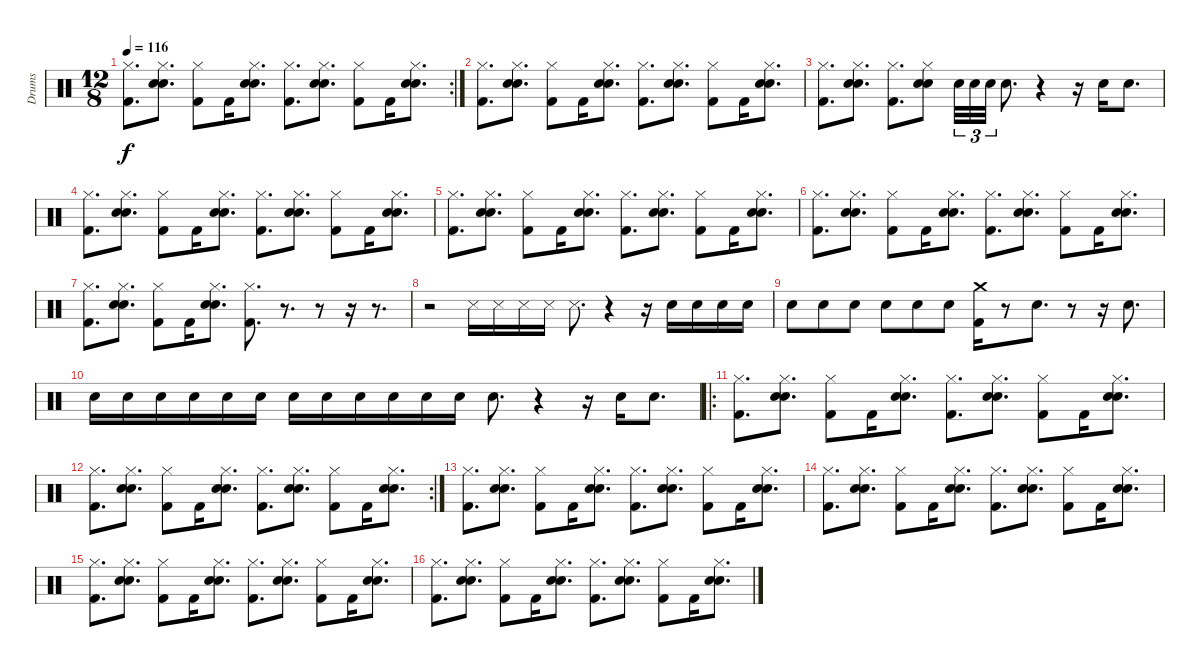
\track ("Drums" "Drums") {instrument percussion}
\staff {score}
\articulation defaults
\rc 2
\ts (12 8)
\tempo 116
\clef neutral
\ks c
("Hi-Hat (closed)" "Kick (hit) 2").8{d dy f} ("Hi-Hat (closed)" "Snare (hit) 2" "Hand Clap (hit)").8{d} ("Hi-Hat (closed)" "Kick (hit) 2").8 "Kick (hit) 2".16 ("Hi-Hat (closed)" "Snare (hit) 2" "Hand Clap (hit)").8{d} ("Hi-Hat (closed)" "Kick (hit) 2").8{d} ("Hi-Hat (closed)" "Snare (hit) 2" "Hand Clap (hit)").8{d} ("Hi-Hat (closed)" "Kick (hit) 2").8 "Kick (hit) 2".16 ("Hi-Hat (closed)" "Snare (hit) 2" "Hand Clap (hit)").8{d} |
("Hi-Hat (closed)" "Kick (hit) 2").8{d} ("Hi-Hat (closed)" "Snare (hit) 2" "Hand Clap (hit)").8{d} ("Hi-Hat (closed)" "Kick (hit) 2").8 "Kick (hit) 2".16 ("Hi-Hat (closed)" "Snare (hit) 2" "Hand Clap (hit)").8{d} ("Hi-Hat (closed)" "Kick (hit) 2").8{d} ("Hi-Hat (closed)" "Snare (hit) 2" "Hand Clap (hit)").8{d} ("Hi-Hat (closed)" "Kick (hit) 2").8 "Kick (hit) 2".16 ("Hi-Hat (closed)" "Snare (hit) 2" "Hand Clap (hit)").8{d} |
("Hi-Hat (closed)" "Kick (hit) 2").8{d} ("Hand Clap (hit)" "Hi-Hat (closed)" "Snare (hit) 2").8{d} ("Hi-Hat (closed)" "Kick (hit) 2").8{d} ("Hand Clap (hit)" "Hi-Hat (closed)" "Snare (hit) 2").8 "Snare (hit) 2".32{tu (3 2)} "Snare (hit) 2".32{tu (3 2)} "Snare (hit) 2".32{tu (3 2)} "Snare (hit) 2".8{d} r.4 r.16 "Snare (hit) 2".16 "Snare (hit) 2".8{d} |
("Hi-Hat (closed)" "Kick (hit) 2").8{d} ("Hi-Hat (closed)" "Snare (hit) 2" "Hand Clap (hit)").8{d} ("Hi-Hat (closed)" "Kick (hit) 2").8 "Kick (hit) 2".16 ("Hi-Hat (closed)" "Snare (hit) 2" "Hand Clap (hit)").8{d} ("Hi-Hat (closed)" "Kick (hit) 2").8{d} ("Hi-Hat (closed)" "Snare (hit) 2" "Hand Clap (hit)").8{d} ("Hi-Hat (closed)" "Kick (hit) 2").8 "Kick (hit) 2".16 ("Hi-Hat (closed)" "Snare (hit) 2" "Hand Clap (hit)").8{d} |
("Hi-Hat (closed)" "Kick (hit) 2").8{d} ("Hi-Hat (closed)" "Snare (hit) 2" "Hand Clap (hit)").8{d} ("Hi-Hat (closed)" "Kick (hit) 2").8 "Kick (hit) 2".16 ("Hi-Hat (closed)" "Snare (hit) 2" "Hand Clap (hit)").8{d} ("Hi-Hat (closed)" "Kick (hit) 2").8{d} ("Hi-Hat (closed)" "Snare (hit) 2" "Hand Clap (hit)").8{d} ("Hi-Hat (closed)" "Kick (hit) 2").8 "Kick (hit) 2".16 ("Hi-Hat (closed)" "Snare (hit) 2" "Hand Clap (hit)").8{d} |
("Hi-Hat (closed)" "Kick (hit) 2").8{d} ("Hi-Hat (closed)" "Snare (hit) 2" "Hand Clap (hit)").8{d} ("Hi-Hat (closed)" "Kick (hit) 2").8 "Kick (hit) 2".16 ("Hi-Hat (closed)" "Snare (hit) 2" "Hand Clap (hit)").8{d} ("Hi-Hat (closed)" "Kick (hit) 2").8{d} ("Hi-Hat (closed)" "Snare (hit) 2" "Hand Clap (hit)").8{d} ("Hi-Hat (closed)" "Kick (hit) 2").8 "Kick (hit) 2".16 ("Hi-Hat (closed)" "Snare (hit) 2" "Hand Clap (hit)").8{d} |
("Hi-Hat (closed)" "Kick (hit) 2").8{d} ("Hi-Hat (closed)" "Snare (hit) 2" "Hand Clap (hit)").8{d} ("Hi-Hat (closed)" "Kick (hit) 2").8 "Kick (hit) 2".16 ("Hi-Hat (closed)" "Snare (hit) 2" "Hand Clap (hit)").8{d} ("Hi-Hat (closed)" "Kick (hit) 2").8{d} r.8{d} r.8 r.16 r.8{d} |
r.2 "Snare (side stick) 3".16 "Snare (side stick) 3".16 "Snare (side stick) 3".16 "Snare (side stick) 3".16 "Snare (side stick) 3".8{d} r.4 r.16 "Snare (hit) 2".16 "Snare (hit) 2".16 "Snare (hit) 2".16 "Snare (hit) 2".16 |
"Snare (hit) 2".8 "Snare (hit) 2".8 "Snare (hit) 2".8 "Snare (hit) 2".8 "Snare (hit) 2".8 "Snare (hit) 2".8 ("Kick (hit) 2" "Crash medium (hit)").16 r.8 "Hand Clap (hit)".8{d} r.8 r.16 "Hand Clap (hit)".8{d} |
"Snare (hit) 2".16 "Snare (hit) 2".16 "Snare (hit) 2".16 "Snare (hit) 2".16 "Snare (hit) 2".16 "Snare (hit) 2".16 "Snare (hit) 2".16 "Snare (hit) 2".16 "Snare (hit) 2".16 "Snare (hit) 2".16 "Snare (hit) 2".16 "Snare (hit) 2".16 "Snare (hit) 2".8{d} r.4 r.16 "Snare (hit) 2".16 "Snare (hit) 2".8{d} |
\ro
("Hi-Hat (closed)" "Kick (hit) 2").8{d} ("Hi-Hat (closed)" "Snare (hit) 2" "Hand Clap (hit)").8{d} ("Hi-Hat (closed)" "Kick (hit) 2").8 "Kick (hit) 2".16 ("Hi-Hat (closed)" "Snare (hit) 2" "Hand Clap (hit)").8{d} ("Hi-Hat (closed)" "Kick (hit) 2").8{d} ("Hi-Hat (closed)" "Snare (hit) 2" "Hand Clap (hit)").8{d} ("Hi-Hat (closed)" "Kick (hit) 2").8 "Kick (hit) 2".16 ("Hi-Hat (closed)" "Snare (hit) 2" "Hand Clap (hit)").8{d} |
\rc 2
("Hi-Hat (closed)" "Kick (hit) 2").8{d} ("Hi-Hat (closed)" "Snare (hit) 2" "Hand Clap (hit)").8{d} ("Hi-Hat (closed)" "Kick (hit) 2").8 "Kick (hit) 2".16 ("Hi-Hat (closed)" "Snare (hit) 2" "Hand Clap (hit)").8{d} ("Hi-Hat (closed)" "Kick (hit) 2").8{d} ("Hi-Hat (closed)" "Snare (hit) 2" "Hand Clap (hit)").8{d} ("Hi-Hat (closed)" "Kick (hit) 2").8 "Kick (hit) 2".16 ("Hi-Hat (closed)" "Snare (hit) 2" "Hand Clap (hit)").8{d} |
("Hi-Hat (closed)" "Kick (hit) 2").8{d} ("Hi-Hat (closed)" "Snare (hit) 2" "Hand Clap (hit)").8{d} ("Hi-Hat (closed)" "Kick (hit) 2").8 "Kick (hit) 2".16 ("Hi-Hat (closed)" "Snare (hit) 2" "Hand Clap (hit)").8{d} ("Hi-Hat (closed)" "Kick (hit) 2").8{d} ("Hi-Hat (closed)" "Snare (hit) 2" "Hand Clap (hit)").8{d} ("Hi-Hat (closed)" "Kick (hit) 2").8 "Kick (hit) 2".16 ("Hi-Hat (closed)" "Snare (hit) 2" "Hand Clap (hit)").8{d} |
("Hi-Hat (closed)" "Kick (hit) 2").8{d} ("Hi-Hat (closed)" "Snare (hit) 2" "Hand Clap (hit)").8{d} ("Hi-Hat (closed)" "Kick (hit) 2").8 "Kick (hit) 2".16 ("Hi-Hat (closed)" "Snare (hit) 2" "Hand Clap (hit)").8{d} ("Hi-Hat (closed)" "Kick (hit) 2").8{d} ("Hi-Hat (closed)" "Snare (hit) 2" "Hand Clap (hit)").8{d} ("Hi-Hat (closed)" "Kick (hit) 2").8 "Kick (hit) 2".16 ("Hi-Hat (closed)" "Snare (hit) 2" "Hand Clap (hit)").8{d} |
("Hi-Hat (closed)" "Kick (hit) 2").8{d} ("Hi-Hat (closed)" "Snare (hit) 2" "Hand Clap (hit)").8{d} ("Hi-Hat (closed)" "Kick (hit) 2").8 "Kick (hit) 2".16 ("Hi-Hat (closed)" "Snare (hit) 2" "Hand Clap (hit)").8{d} ("Hi-Hat (closed)" "Kick (hit) 2").8{d} ("Hi-Hat (closed)" "Snare (hit) 2" "Hand Clap (hit)").8{d} ("Hi-Hat (closed)" "Kick (hit) 2").8 "Kick (hit) 2".16 ("Hi-Hat (closed)" "Snare (hit) 2" "Hand Clap (hit)").8{d} |
("Hi-Hat (closed)" "Kick (hit) 2").8{d} ("Hi-Hat (closed)" "Snare (hit) 2" "Hand Clap (hit)").8{d} ("Hi-Hat (closed)" "Kick (hit) 2").8 "Kick (hit) 2".16 ("Hi-Hat (closed)" "Snare (hit) 2" "Hand Clap (hit)").8{d} ("Hi-Hat (closed)" "Kick (hit) 2").8{d} ("Hi-Hat (closed)" "Snare (hit) 2" "Hand Clap (hit)").8{d} ("Hi-Hat (closed)" "Kick (hit) 2").8 "Kick (hit) 2".16 ("Hi-Hat (closed)" "Snare (hit) 2" "Hand Clap (hit)").8{d}
